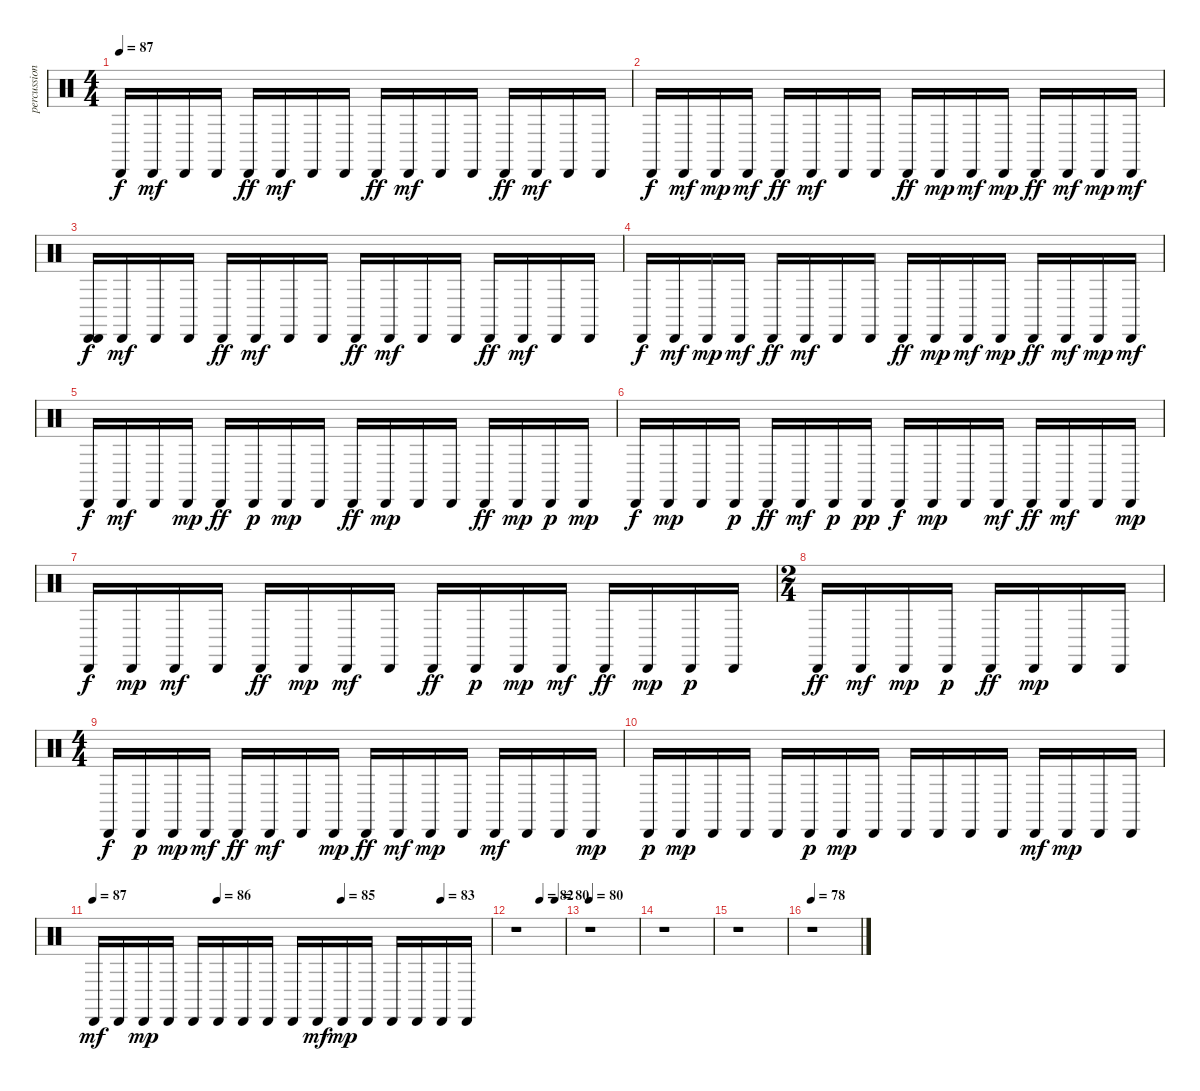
\track ("percussion" "percussion") {instrument percussion}
\staff {score}
\articulation defaults
\ts (4 4)
\tempo 87
\clef neutral
\ks c "Cabasa (hit)".16{dy f} "Cabasa (hit)".16{dy mf} "Cabasa (hit)".16 "Cabasa (hit)".16 "Cabasa (hit)".16{dy ff} "Cabasa (hit)".16{dy mf} "Cabasa (hit)".16 "Cabasa (hit)".16 "Cabasa (hit)".16{dy ff} "Cabasa (hit)".16{dy mf} "Cabasa (hit)".16 "Cabasa (hit)".16 "Cabasa (hit)".16{dy ff} "Cabasa (hit)".16{dy mf} "Cabasa (hit)".16 "Cabasa (hit)".16
|
"Cabasa (hit)".16{dy f} "Cabasa (hit)".16{dy mf} "Cabasa (hit)".16{dy mp} "Cabasa (hit)".16{dy mf} "Cabasa (hit)".16{dy ff} "Cabasa (hit)".16{dy mf} "Cabasa (hit)".16 "Cabasa (hit)".16 "Cabasa (hit)".16{dy ff} "Cabasa (hit)".16{dy mp} "Cabasa (hit)".16{dy mf} "Cabasa (hit)".16{dy mp} "Cabasa (hit)".16{dy ff} "Cabasa (hit)".16{dy mf} "Cabasa (hit)".16{dy mp} "Cabasa (hit)".16{dy mf} |
("Cabasa (hit)" "Cabasa (hit)").16{dy f} "Cabasa (hit)".16{dy mf} "Cabasa (hit)".16 "Cabasa (hit)".16 "Cabasa (hit)".16{dy ff} "Cabasa (hit)".16{dy mf} "Cabasa (hit)".16 "Cabasa (hit)".16 "Cabasa (hit)".16{dy ff} "Cabasa (hit)".16{dy mf} "Cabasa (hit)".16 "Cabasa (hit)".16 "Cabasa (hit)".16{dy ff} "Cabasa (hit)".16{dy mf} "Cabasa (hit)".16 "Cabasa (hit)".16 |
"Cabasa (hit)".16{dy f} "Cabasa (hit)".16{dy mf} "Cabasa (hit)".16{dy mp} "Cabasa (hit)".16{dy mf} "Cabasa (hit)".16{dy ff} "Cabasa (hit)".16{dy mf} "Cabasa (hit)".16 "Cabasa (hit)".16 "Cabasa (hit)".16{dy ff} "Cabasa (hit)".16{dy mp} "Cabasa (hit)".16{dy mf} "Cabasa (hit)".16{dy mp} "Cabasa (hit)".16{dy ff} "Cabasa (hit)".16{dy mf} "Cabasa (hit)".16{dy mp} "Cabasa (hit)".16{dy mf} |
"Cabasa (hit)".16{dy f} "Cabasa (hit)".16{dy mf} "Cabasa (hit)".16 "Cabasa (hit)".16{dy mp} "Cabasa (hit)".16{dy ff} "Cabasa (hit)".16{dy p} "Cabasa (hit)".16{dy mp} "Cabasa (hit)".16 "Cabasa (hit)".16{dy ff} "Cabasa (hit)".16{dy mp} "Cabasa (hit)".16 "Cabasa (hit)".16 "Cabasa (hit)".16{dy ff} "Cabasa (hit)".16{dy mp} "Cabasa (hit)".16{dy p} "Cabasa (hit)".16{dy mp} |
"Cabasa (hit)".16{dy f} "Cabasa (hit)".16{dy mp} "Cabasa (hit)".16 "Cabasa (hit)".16{dy p} "Cabasa (hit)".16{dy ff} "Cabasa (hit)".16{dy mf} "Cabasa (hit)".16{dy p} "Cabasa (hit)".16{dy pp} "Cabasa (hit)".16{dy f} "Cabasa (hit)".16{dy mp} "Cabasa (hit)".16 "Cabasa (hit)".16{dy mf} "Cabasa (hit)".16{dy ff} "Cabasa (hit)".16{dy mf} "Cabasa (hit)".16 "Cabasa (hit)".16{dy mp} |
"Cabasa (hit)".16{dy f} "Cabasa (hit)".16{dy mp} "Cabasa (hit)".16{dy mf} "Cabasa (hit)".16 "Cabasa (hit)".16{dy ff} "Cabasa (hit)".16{dy mp} "Cabasa (hit)".16{dy mf} "Cabasa (hit)".16 "Cabasa (hit)".16{dy ff} "Cabasa (hit)".16{dy p} "Cabasa (hit)".16{dy mp} "Cabasa (hit)".16{dy mf} "Cabasa (hit)".16{dy ff} "Cabasa (hit)".16{dy mp} "Cabasa (hit)".16{dy p} "Cabasa (hit)".16 |
\ts (2 4)
"Cabasa (hit)".16{dy ff} "Cabasa (hit)".16{dy mf} "Cabasa (hit)".16{dy mp} "Cabasa (hit)".16{dy p} "Cabasa (hit)".16{dy ff} "Cabasa (hit)".16{dy mp} "Cabasa (hit)".16 "Cabasa (hit)".16 |
\ts (4 4)
"Cabasa (hit)".16{dy f} "Cabasa (hit)".16{dy p} "Cabasa (hit)".16{dy mp} "Cabasa (hit)".16{dy mf} "Cabasa (hit)".16{dy ff} "Cabasa (hit)".16{dy mf} "Cabasa (hit)".16 "Cabasa (hit)".16{dy mp} "Cabasa (hit)".16{dy ff} "Cabasa (hit)".16{dy mf} "Cabasa (hit)".16{dy mp} "Cabasa (hit)".16 "Cabasa (hit)".16{dy mf} "Cabasa (hit)".16 "Cabasa (hit)".16 "Cabasa (hit)".16{dy mp} |
"Cabasa (hit)".16{dy p} "Cabasa (hit)".16{dy mp} "Cabasa (hit)".16 "Cabasa (hit)".16 "Cabasa (hit)".16 "Cabasa (hit)".16{dy p} "Cabasa (hit)".16{dy mp} "Cabasa (hit)".16 "Cabasa (hit)".16 "Cabasa (hit)".16 "Cabasa (hit)".16 "Cabasa (hit)".16 "Cabasa (hit)".16{dy mf} "Cabasa (hit)".16{dy mp} "Cabasa (hit)".16 "Cabasa (hit)".16 |
\tempo 87
\tempo (86 0.3125)
\tempo (85 0.625)
\tempo (83 0.875)
"Cabasa (hit)".16{dy mf} "Cabasa (hit)".16 "Cabasa (hit)".16{dy mp} "Cabasa (hit)".16 "Cabasa (hit)".16 "Cabasa (hit)".16 "Cabasa (hit)".16 "Cabasa (hit)".16 "Cabasa (hit)".16 "Cabasa (hit)".16{dy mf} "Cabasa (hit)".16{dy mp} "Cabasa (hit)".16 "Cabasa (hit)".16 "Cabasa (hit)".16 "Cabasa (hit)".16 "Cabasa (hit)".16 |
\tempo (82 0.5)
\tempo (80 0.8125)
r.1 |
\tempo 80
r.1 |
r.1 |
r.1 |
\tempo 78
r.1
